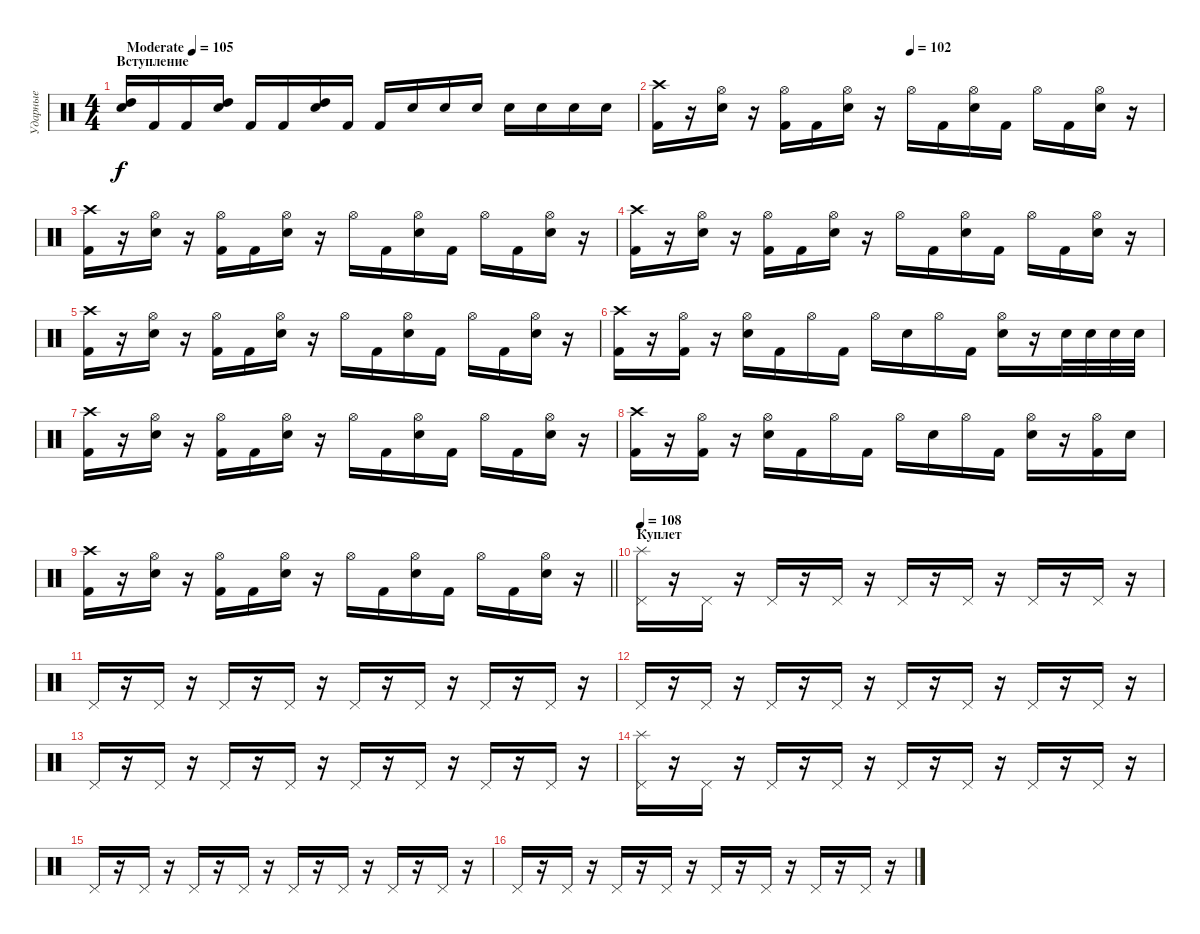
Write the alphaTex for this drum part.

\track ("Ударные" "Ударные") {instrument percussion}
\staff {score}
\articulation defaults
\ts (4 4)
\section ("" "Вступление")
\tempo (105 "Moderate")
\clef neutral
\ks c
("High Tom (hit)" "Electric Snare (hit)").16{dy f} "Kick (hit) 2".16 "Kick (hit) 2".16 ("High Tom (hit)" "Electric Snare (hit)").16 "Kick (hit) 2".16 "Kick (hit) 2".16 ("High Tom (hit)" "Electric Snare (hit)").16 "Kick (hit) 2".16 "Kick (hit) 2".16 "Electric Snare (hit)".16 "Electric Snare (hit)".16 "Electric Snare (hit)".16 "Electric Snare (hit)".16 "Electric Snare (hit)".16 "Electric Snare (hit)".16 "Electric Snare (hit)".16 |
\tempo (102 0.5)
("Crash high (hit)" "Kick (hit) 2").16 r.16 ("Hi-Hat (open)" "Electric Snare (hit)").16 r.16 ("Hi-Hat (open)" "Kick (hit) 2").16 "Kick (hit) 2".16 ("Hi-Hat (open)" "Electric Snare (hit)").16 r.16 "Hi-Hat (open)".16 "Kick (hit) 2".16 ("Hi-Hat (open)" "Electric Snare (hit)").16 "Kick (hit) 2".16 "Hi-Hat (open)".16 "Kick (hit) 2".16 ("Hi-Hat (open)" "Electric Snare (hit)").16 r.16 |
("Crash high (hit)" "Kick (hit) 2").16 r.16 ("Hi-Hat (open)" "Electric Snare (hit)").16 r.16 ("Hi-Hat (open)" "Kick (hit) 2").16 "Kick (hit) 2".16 ("Hi-Hat (open)" "Electric Snare (hit)").16 r.16 "Hi-Hat (open)".16 "Kick (hit) 2".16 ("Hi-Hat (open)" "Electric Snare (hit)").16 "Kick (hit) 2".16 "Hi-Hat (open)".16 "Kick (hit) 2".16 ("Hi-Hat (open)" "Electric Snare (hit)").16 r.16 |
("Crash high (hit)" "Kick (hit) 2").16 r.16 ("Hi-Hat (open)" "Electric Snare (hit)").16 r.16 ("Hi-Hat (open)" "Kick (hit) 2").16 "Kick (hit) 2".16 ("Hi-Hat (open)" "Electric Snare (hit)").16 r.16 "Hi-Hat (open)".16 "Kick (hit) 2".16 ("Hi-Hat (open)" "Electric Snare (hit)").16 "Kick (hit) 2".16 "Hi-Hat (open)".16 "Kick (hit) 2".16 ("Hi-Hat (open)" "Electric Snare (hit)").16 r.16 |
("Crash high (hit)" "Kick (hit) 2").16 r.16 ("Hi-Hat (open)" "Electric Snare (hit)").16 r.16 ("Hi-Hat (open)" "Kick (hit) 2").16 "Kick (hit) 2".16 ("Hi-Hat (open)" "Electric Snare (hit)").16 r.16 "Hi-Hat (open)".16 "Kick (hit) 2".16 ("Hi-Hat (open)" "Electric Snare (hit)").16 "Kick (hit) 2".16 "Hi-Hat (open)".16 "Kick (hit) 2".16 ("Hi-Hat (open)" "Electric Snare (hit)").16 r.16 |
("Crash high (hit)" "Kick (hit) 2").16 r.16 ("Hi-Hat (open)" "Kick (hit) 2").16 r.16 ("Hi-Hat (open)" "Electric Snare (hit)").16 "Kick (hit) 2".16 "Hi-Hat (open)".16 "Kick (hit) 2".16 "Hi-Hat (open)".16 "Electric Snare (hit)".16 "Hi-Hat (open)".16 "Kick (hit) 2".16 ("Hi-Hat (open)" "Electric Snare (hit)").16 r.16 "Electric Snare (hit)".32 "Electric Snare (hit)".32 "Electric Snare (hit)".32 "Electric Snare (hit)".32 |
("Crash high (hit)" "Kick (hit) 2").16 r.16 ("Hi-Hat (open)" "Electric Snare (hit)").16 r.16 ("Hi-Hat (open)" "Kick (hit) 2").16 "Kick (hit) 2".16 ("Hi-Hat (open)" "Electric Snare (hit)").16 r.16 "Hi-Hat (open)".16 "Kick (hit) 2".16 ("Hi-Hat (open)" "Electric Snare (hit)").16 "Kick (hit) 2".16 "Hi-Hat (open)".16 "Kick (hit) 2".16 ("Hi-Hat (open)" "Electric Snare (hit)").16 r.16 |
("Crash high (hit)" "Kick (hit) 2").16 r.16 ("Hi-Hat (open)" "Kick (hit) 2").16 r.16 ("Hi-Hat (open)" "Electric Snare (hit)").16 "Kick (hit) 2".16 "Hi-Hat (open)".16 "Kick (hit) 2".16 "Hi-Hat (open)".16 "Electric Snare (hit)".16 "Hi-Hat (open)".16 "Kick (hit) 2".16 ("Hi-Hat (open)" "Electric Snare (hit)").16 r.16 ("Hi-Hat (open)" "Kick (hit) 2").16 "Electric Snare (hit)".16 |
\barLineRight lightlight
("Crash high (hit)" "Kick (hit) 2").16 r.16 ("Hi-Hat (open)" "Electric Snare (hit)").16 r.16 ("Hi-Hat (open)" "Kick (hit) 2").16 "Kick (hit) 2".16 ("Hi-Hat (open)" "Electric Snare (hit)").16 r.16 "Hi-Hat (open)".16 "Kick (hit) 2".16 ("Hi-Hat (open)" "Electric Snare (hit)").16 "Kick (hit) 2".16 "Hi-Hat (open)".16 "Kick (hit) 2".16 ("Hi-Hat (open)" "Electric Snare (hit)").16 r.16 |
\section ("" "Куплет")
\tempo 108
("Splash (hit)" "Pedal Hi-Hat (hit)").16 r.16 "Pedal Hi-Hat (hit)".16 r.16 "Pedal Hi-Hat (hit)".16 r.16 "Pedal Hi-Hat (hit)".16 r.16 "Pedal Hi-Hat (hit)".16 r.16 "Pedal Hi-Hat (hit)".16 r.16 "Pedal Hi-Hat (hit)".16 r.16 "Pedal Hi-Hat (hit)".16 r.16 |
"Pedal Hi-Hat (hit)".16 r.16 "Pedal Hi-Hat (hit)".16 r.16 "Pedal Hi-Hat (hit)".16 r.16 "Pedal Hi-Hat (hit)".16 r.16 "Pedal Hi-Hat (hit)".16 r.16 "Pedal Hi-Hat (hit)".16 r.16 "Pedal Hi-Hat (hit)".16 r.16 "Pedal Hi-Hat (hit)".16 r.16 |
"Pedal Hi-Hat (hit)".16 r.16 "Pedal Hi-Hat (hit)".16 r.16 "Pedal Hi-Hat (hit)".16 r.16 "Pedal Hi-Hat (hit)".16 r.16 "Pedal Hi-Hat (hit)".16 r.16 "Pedal Hi-Hat (hit)".16 r.16 "Pedal Hi-Hat (hit)".16 r.16 "Pedal Hi-Hat (hit)".16 r.16 |
"Pedal Hi-Hat (hit)".16 r.16 "Pedal Hi-Hat (hit)".16 r.16 "Pedal Hi-Hat (hit)".16 r.16 "Pedal Hi-Hat (hit)".16 r.16 "Pedal Hi-Hat (hit)".16 r.16 "Pedal Hi-Hat (hit)".16 r.16 "Pedal Hi-Hat (hit)".16 r.16 "Pedal Hi-Hat (hit)".16 r.16 |
("Splash (hit)" "Pedal Hi-Hat (hit)").16 r.16 "Pedal Hi-Hat (hit)".16 r.16 "Pedal Hi-Hat (hit)".16 r.16 "Pedal Hi-Hat (hit)".16 r.16 "Pedal Hi-Hat (hit)".16 r.16 "Pedal Hi-Hat (hit)".16 r.16 "Pedal Hi-Hat (hit)".16 r.16 "Pedal Hi-Hat (hit)".16 r.16 |
"Pedal Hi-Hat (hit)".16 r.16 "Pedal Hi-Hat (hit)".16 r.16 "Pedal Hi-Hat (hit)".16 r.16 "Pedal Hi-Hat (hit)".16 r.16 "Pedal Hi-Hat (hit)".16 r.16 "Pedal Hi-Hat (hit)".16 r.16 "Pedal Hi-Hat (hit)".16 r.16 "Pedal Hi-Hat (hit)".16 r.16 |
"Pedal Hi-Hat (hit)".16 r.16 "Pedal Hi-Hat (hit)".16 r.16 "Pedal Hi-Hat (hit)".16 r.16 "Pedal Hi-Hat (hit)".16 r.16 "Pedal Hi-Hat (hit)".16 r.16 "Pedal Hi-Hat (hit)".16 r.16 "Pedal Hi-Hat (hit)".16 r.16 "Pedal Hi-Hat (hit)".16 r.16
